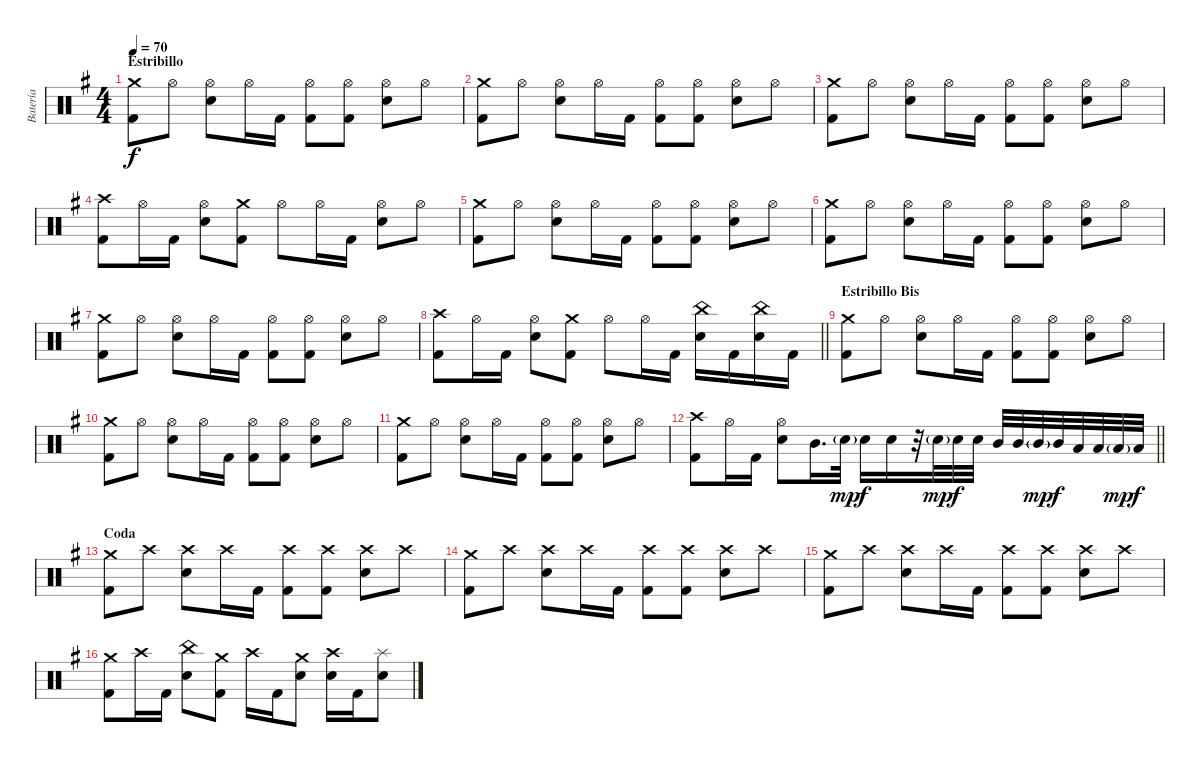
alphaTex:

\track ("Batería" "Batería") {instrument percussion}
\staff {score}
\articulation defaults
\ts (4 4)
\section ("" "Estribillo")
\tempo 70
\clef neutral
\ks g
("Crash medium (hit)" "Kick (hit) 2").8{dy f} "Hi-Hat (open)".8 ("Hi-Hat (open)" "Electric Snare (hit)").8 "Hi-Hat (open)".16 "Kick (hit) 2".16 ("Hi-Hat (open)" "Kick (hit) 2").8 ("Hi-Hat (open)" "Kick (hit) 2").8 ("Hi-Hat (open)" "Electric Snare (hit)").8 "Hi-Hat (open)".8 |
("Crash medium (hit)" "Kick (hit) 2").8 "Hi-Hat (open)".8 ("Hi-Hat (open)" "Electric Snare (hit)").8 "Hi-Hat (open)".16 "Kick (hit) 2".16 ("Hi-Hat (open)" "Kick (hit) 2").8 ("Hi-Hat (open)" "Kick (hit) 2").8 ("Hi-Hat (open)" "Electric Snare (hit)").8 "Hi-Hat (open)".8 |
("Crash medium (hit)" "Kick (hit) 2").8 "Hi-Hat (open)".8 ("Hi-Hat (open)" "Electric Snare (hit)").8 "Hi-Hat (open)".16 "Kick (hit) 2".16 ("Hi-Hat (open)" "Kick (hit) 2").8 ("Hi-Hat (open)" "Kick (hit) 2").8 ("Hi-Hat (open)" "Electric Snare (hit)").8 "Hi-Hat (open)".8 |
("Crash high (hit)" "Kick (hit) 2").8 "Hi-Hat (open)".16 "Kick (hit) 2".16 ("Hi-Hat (open)" "Electric Snare (hit)").8 ("Crash medium (hit)" "Kick (hit) 2").8 "Hi-Hat (open)".8 "Hi-Hat (open)".16 "Kick (hit) 2".16 ("Hi-Hat (open)" "Electric Snare (hit)").8 "Hi-Hat (open)".8 |
("Crash medium (hit)" "Kick (hit) 2").8 "Hi-Hat (open)".8 ("Hi-Hat (open)" "Electric Snare (hit)").8 "Hi-Hat (open)".16 "Kick (hit) 2".16 ("Hi-Hat (open)" "Kick (hit) 2").8 ("Hi-Hat (open)" "Kick (hit) 2").8 ("Hi-Hat (open)" "Electric Snare (hit)").8 "Hi-Hat (open)".8 |
("Crash medium (hit)" "Kick (hit) 2").8 "Hi-Hat (open)".8 ("Hi-Hat (open)" "Electric Snare (hit)").8 "Hi-Hat (open)".16 "Kick (hit) 2".16 ("Hi-Hat (open)" "Kick (hit) 2").8 ("Hi-Hat (open)" "Kick (hit) 2").8 ("Hi-Hat (open)" "Electric Snare (hit)").8 "Hi-Hat (open)".8 |
("Crash medium (hit)" "Kick (hit) 2").8 "Hi-Hat (open)".8 ("Hi-Hat (open)" "Electric Snare (hit)").8 "Hi-Hat (open)".16 "Kick (hit) 2".16 ("Hi-Hat (open)" "Kick (hit) 2").8 ("Hi-Hat (open)" "Kick (hit) 2").8 ("Hi-Hat (open)" "Electric Snare (hit)").8 "Hi-Hat (open)".8 |
\barLineRight lightlight
("Crash high (hit)" "Kick (hit) 2").8 "Hi-Hat (open)".16 "Kick (hit) 2".16 ("Hi-Hat (open)" "Electric Snare (hit)").8 ("Crash medium (hit)" "Kick (hit) 2").8 "Hi-Hat (open)".8 "Hi-Hat (open)".16 "Kick (hit) 2".16 ("China (hit)" "Electric Snare (hit)").16 "Kick (hit) 2".16 ("China (hit)" "Electric Snare (hit)").16 "Kick (hit) 2".16 |
\section ("" "Estribillo Bis")
("Crash medium (hit)" "Kick (hit) 2").8 "Hi-Hat (open)".8 ("Hi-Hat (open)" "Electric Snare (hit)").8 "Hi-Hat (open)".16 "Kick (hit) 2".16 ("Hi-Hat (open)" "Kick (hit) 2").8 ("Hi-Hat (open)" "Kick (hit) 2").8 ("Hi-Hat (open)" "Electric Snare (hit)").8 "Hi-Hat (open)".8 |
("Crash medium (hit)" "Kick (hit) 2").8 "Hi-Hat (open)".8 ("Hi-Hat (open)" "Electric Snare (hit)").8 "Hi-Hat (open)".16 "Kick (hit) 2".16 ("Hi-Hat (open)" "Kick (hit) 2").8 ("Hi-Hat (open)" "Kick (hit) 2").8 ("Hi-Hat (open)" "Electric Snare (hit)").8 "Hi-Hat (open)".8 |
("Crash medium (hit)" "Kick (hit) 2").8 "Hi-Hat (open)".8 ("Hi-Hat (open)" "Electric Snare (hit)").8 "Hi-Hat (open)".16 "Kick (hit) 2".16 ("Hi-Hat (open)" "Kick (hit) 2").8 ("Hi-Hat (open)" "Kick (hit) 2").8 ("Hi-Hat (open)" "Electric Snare (hit)").8 "Hi-Hat (open)".8 |
\barLineRight lightlight
("Crash high (hit)" "Kick (hit) 2").8 "Hi-Hat (open)".16 "Kick (hit) 2".16 ("Hi-Hat (open)" "Electric Snare (hit)").8 "Mid Tom (hit)".16{d} "Electric Snare (hit)"{g}.32{dy mp} "Electric Snare (hit)".16{dy f} "Electric Snare (hit)".16 r.32 "Electric Snare (hit)"{g}.32{dy mp} "Electric Snare (hit)".32{dy f} "Electric Snare (hit)".32 "Mid Tom (hit)".32 "Mid Tom (hit)".32 "Mid Tom (hit)"{g}.32{dy mp} "Mid Tom (hit)".32{dy f} "Low Tom (hit)".32 "Low Tom (hit)".32 "Low Tom (hit)"{g}.32{dy mp} "Low Tom (hit)".32{dy f} |
\section ("" "Coda")
("Crash medium (hit)" "Kick (hit) 2").8 "Crash high (hit)".8 ("Crash high (hit)" "Electric Snare (hit)").8 "Crash high (hit)".16 "Kick (hit) 2".16 ("Crash high (hit)" "Kick (hit) 2").8 ("Crash high (hit)" "Kick (hit) 2").8 ("Crash high (hit)" "Electric Snare (hit)").8 "Crash high (hit)".8 |
("Crash medium (hit)" "Kick (hit) 2").8 "Crash high (hit)".8 ("Crash high (hit)" "Electric Snare (hit)").8 "Crash high (hit)".16 "Kick (hit) 2".16 ("Crash high (hit)" "Kick (hit) 2").8 ("Crash high (hit)" "Kick (hit) 2").8 ("Crash high (hit)" "Electric Snare (hit)").8 "Crash high (hit)".8 |
("Crash medium (hit)" "Kick (hit) 2").8 "Crash high (hit)".8 ("Crash high (hit)" "Electric Snare (hit)").8 "Crash high (hit)".16 "Kick (hit) 2".16 ("Crash high (hit)" "Kick (hit) 2").8 ("Crash high (hit)" "Kick (hit) 2").8 ("Crash high (hit)" "Electric Snare (hit)").8 "Crash high (hit)".8 |
("Crash medium (hit)" "Kick (hit) 2").8 "Crash high (hit)".16 "Kick (hit) 2".16 ("China (hit)" "Electric Snare (hit)").8 ("Crash medium (hit)" "Kick (hit) 2").8 "Crash high (hit)".16 "Kick (hit) 2".16 ("Crash medium (hit)" "Electric Snare (hit)").8 ("Crash high (hit)" "Electric Snare (hit)").16 "Kick (hit) 2".16 ("Splash (hit)" "Electric Snare (hit)").8
